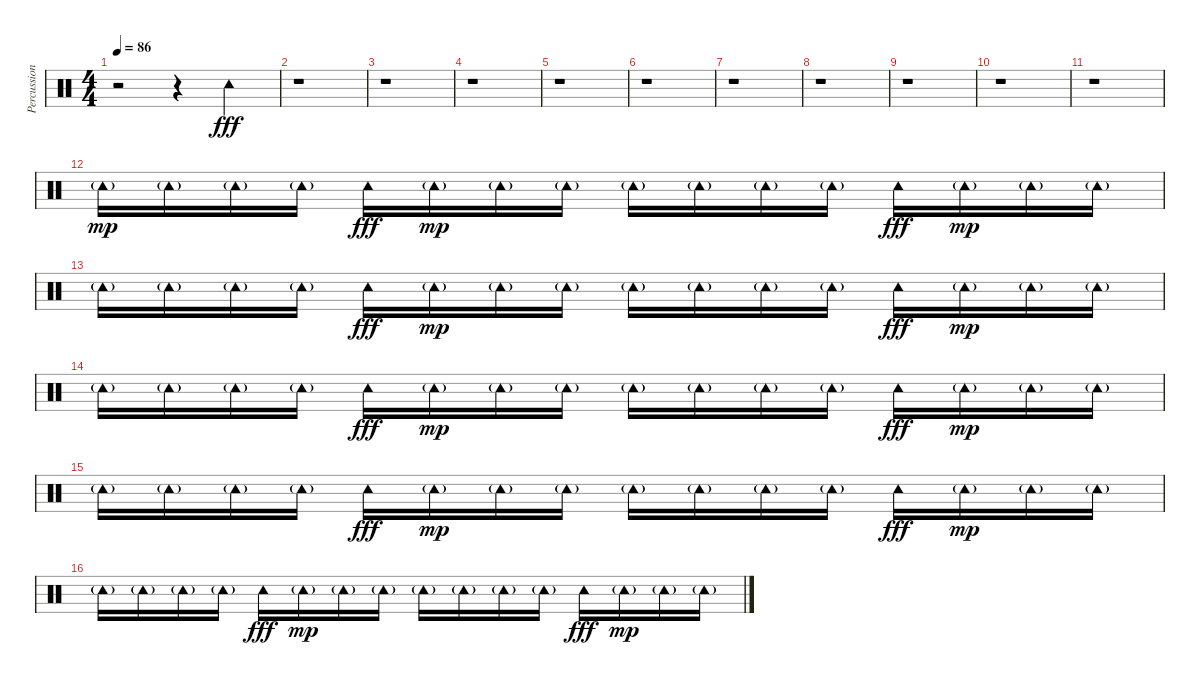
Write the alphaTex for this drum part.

\track ("Percussion" "Percussion") {instrument percussion}
\staff {score}
\articulation defaults
\ts (4 4)
\tempo 86
\clef neutral
\ks c
r.2{dy fff} r.4 "Tambourine (hit)".4 |
r.1 |
r.1 |
r.1 |
r.1 |
r.1 |
r.1 |
r.1 |
r.1 |
r.1 |
r.1 |
"Tambourine (hit)"{g}.16{dy mp} "Tambourine (hit)"{g}.16 "Tambourine (hit)"{g}.16 "Tambourine (hit)"{g}.16 "Tambourine (hit)".16{dy fff} "Tambourine (hit)"{g}.16{dy mp} "Tambourine (hit)"{g}.16 "Tambourine (hit)"{g}.16 "Tambourine (hit)"{g}.16 "Tambourine (hit)"{g}.16 "Tambourine (hit)"{g}.16 "Tambourine (hit)"{g}.16 "Tambourine (hit)".16{dy fff} "Tambourine (hit)"{g}.16{dy mp} "Tambourine (hit)"{g}.16 "Tambourine (hit)"{g}.16 |
"Tambourine (hit)"{g}.16 "Tambourine (hit)"{g}.16 "Tambourine (hit)"{g}.16 "Tambourine (hit)"{g}.16 "Tambourine (hit)".16{dy fff} "Tambourine (hit)"{g}.16{dy mp} "Tambourine (hit)"{g}.16 "Tambourine (hit)"{g}.16 "Tambourine (hit)"{g}.16 "Tambourine (hit)"{g}.16 "Tambourine (hit)"{g}.16 "Tambourine (hit)"{g}.16 "Tambourine (hit)".16{dy fff} "Tambourine (hit)"{g}.16{dy mp} "Tambourine (hit)"{g}.16 "Tambourine (hit)"{g}.16 |
"Tambourine (hit)"{g}.16 "Tambourine (hit)"{g}.16 "Tambourine (hit)"{g}.16 "Tambourine (hit)"{g}.16 "Tambourine (hit)".16{dy fff} "Tambourine (hit)"{g}.16{dy mp} "Tambourine (hit)"{g}.16 "Tambourine (hit)"{g}.16 "Tambourine (hit)"{g}.16 "Tambourine (hit)"{g}.16 "Tambourine (hit)"{g}.16 "Tambourine (hit)"{g}.16 "Tambourine (hit)".16{dy fff} "Tambourine (hit)"{g}.16{dy mp} "Tambourine (hit)"{g}.16 "Tambourine (hit)"{g}.16 |
"Tambourine (hit)"{g}.16 "Tambourine (hit)"{g}.16 "Tambourine (hit)"{g}.16 "Tambourine (hit)"{g}.16 "Tambourine (hit)".16{dy fff} "Tambourine (hit)"{g}.16{dy mp} "Tambourine (hit)"{g}.16 "Tambourine (hit)"{g}.16 "Tambourine (hit)"{g}.16 "Tambourine (hit)"{g}.16 "Tambourine (hit)"{g}.16 "Tambourine (hit)"{g}.16 "Tambourine (hit)".16{dy fff} "Tambourine (hit)"{g}.16{dy mp} "Tambourine (hit)"{g}.16 "Tambourine (hit)"{g}.16 |
"Tambourine (hit)"{g}.16 "Tambourine (hit)"{g}.16 "Tambourine (hit)"{g}.16 "Tambourine (hit)"{g}.16 "Tambourine (hit)".16{dy fff} "Tambourine (hit)"{g}.16{dy mp} "Tambourine (hit)"{g}.16 "Tambourine (hit)"{g}.16 "Tambourine (hit)"{g}.16 "Tambourine (hit)"{g}.16 "Tambourine (hit)"{g}.16 "Tambourine (hit)"{g}.16 "Tambourine (hit)".16{dy fff} "Tambourine (hit)"{g}.16{dy mp} "Tambourine (hit)"{g}.16 "Tambourine (hit)"{g}.16
